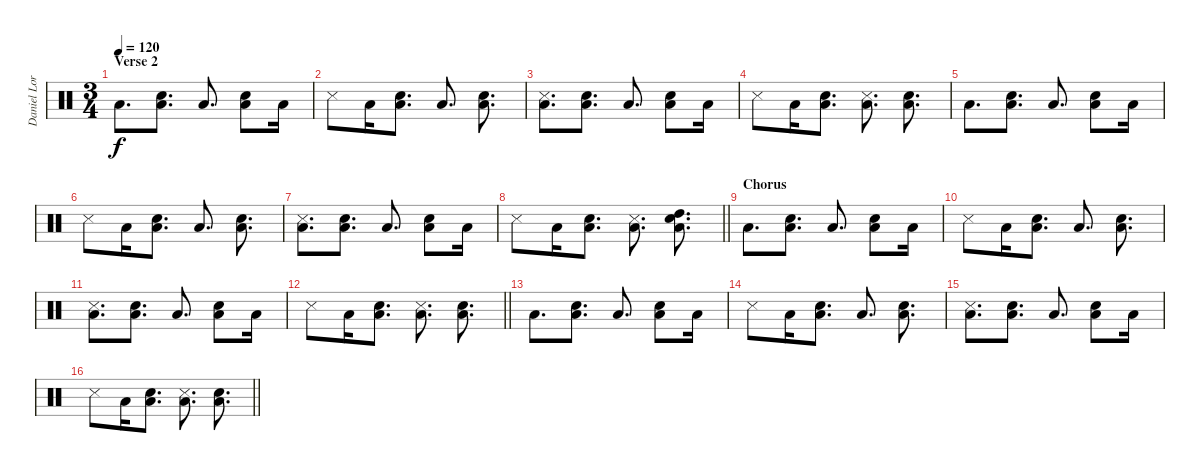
\track ("Daniel Lorca " "Daniel Lor") {instrument percussion}
\staff {score}
\articulation defaults
\ts (3 4)
\section ("" "Verse 2")
\tempo 120
\clef neutral
\ks c "Low Floor Tom (hit)".8{d dy f}
("Low Floor Tom (hit)" "Electric Snare (hit)").8{d} "Low Floor Tom (hit)".8{d} ("Low Floor Tom (hit)" "Electric Snare (hit)").8 "Low Floor Tom (hit)".16 |
"Snare (side stick) 3".8 "Low Floor Tom (hit)".16 ("Low Floor Tom (hit)" "Electric Snare (hit)").8{d} "Low Floor Tom (hit)".8{d} ("Low Floor Tom (hit)" "Electric Snare (hit)").8{d} |
("Low Floor Tom (hit)" "Metronome (hit)").8{d} ("Low Floor Tom (hit)" "Electric Snare (hit)").8{d} "Low Floor Tom (hit)".8{d} ("Low Floor Tom (hit)" "Electric Snare (hit)").8 "Low Floor Tom (hit)".16 |
"Snare (side stick) 3".8 "Low Floor Tom (hit)".16 ("Low Floor Tom (hit)" "Electric Snare (hit)").8{d} ("Low Floor Tom (hit)" "Metronome (hit)").8{d} ("Low Floor Tom (hit)" "Electric Snare (hit)").8{d} |
"Low Floor Tom (hit)".8{d} ("Low Floor Tom (hit)" "Electric Snare (hit)").8{d} "Low Floor Tom (hit)".8{d} ("Low Floor Tom (hit)" "Electric Snare (hit)").8 "Low Floor Tom (hit)".16 |
"Snare (side stick) 3".8 "Low Floor Tom (hit)".16 ("Low Floor Tom (hit)" "Electric Snare (hit)").8{d} "Low Floor Tom (hit)".8{d} ("Low Floor Tom (hit)" "Electric Snare (hit)").8{d} |
("Low Floor Tom (hit)" "Metronome (hit)").8{d} ("Low Floor Tom (hit)" "Electric Snare (hit)").8{d} "Low Floor Tom (hit)".8{d} ("Low Floor Tom (hit)" "Electric Snare (hit)").8 "Low Floor Tom (hit)".16 |
\barLineRight lightlight "Snare (side stick) 3".8 "Low Floor Tom (hit)".16
("Low Floor Tom (hit)" "Electric Snare (hit)").8{d} ("Low Floor Tom (hit)" "Metronome (hit)").8{d} ("Low Floor Tom (hit)" "Electric Snare (hit)" "High Tom (hit)").8{d} |
\section ("" "Chorus")
"Low Floor Tom (hit)".8{d} ("Low Floor Tom (hit)" "Electric Snare (hit)").8{d} "Low Floor Tom (hit)".8{d} ("Low Floor Tom (hit)" "Electric Snare (hit)").8 "Low Floor Tom (hit)".16 |
"Snare (side stick) 3".8 "Low Floor Tom (hit)".16 ("Low Floor Tom (hit)" "Electric Snare (hit)").8{d} "Low Floor Tom (hit)".8{d} ("Low Floor Tom (hit)" "Electric Snare (hit)").8{d} |
("Low Floor Tom (hit)" "Metronome (hit)").8{d} ("Low Floor Tom (hit)" "Electric Snare (hit)").8{d} "Low Floor Tom (hit)".8{d} ("Low Floor Tom (hit)" "Electric Snare (hit)").8 "Low Floor Tom (hit)".16 |
\barLineRight lightlight "Snare (side stick) 3".8 "Low Floor Tom (hit)".16
("Low Floor Tom (hit)" "Electric Snare (hit)").8{d} ("Low Floor Tom (hit)" "Metronome (hit)").8{d} ("Low Floor Tom (hit)" "Electric Snare (hit)").8{d} |
"Low Floor Tom (hit)".8{d} ("Low Floor Tom (hit)" "Electric Snare (hit)").8{d} "Low Floor Tom (hit)".8{d} ("Low Floor Tom (hit)" "Electric Snare (hit)").8 "Low Floor Tom (hit)".16 |
"Snare (side stick) 3".8 "Low Floor Tom (hit)".16 ("Low Floor Tom (hit)" "Electric Snare (hit)").8{d} "Low Floor Tom (hit)".8{d} ("Low Floor Tom (hit)" "Electric Snare (hit)").8{d} |
("Low Floor Tom (hit)" "Metronome (hit)").8{d} ("Low Floor Tom (hit)" "Electric Snare (hit)").8{d} "Low Floor Tom (hit)".8{d} ("Low Floor Tom (hit)" "Electric Snare (hit)").8 "Low Floor Tom (hit)".16 |
\barLineRight lightlight "Snare (side stick) 3".8 "Low Floor Tom (hit)".16
("Low Floor Tom (hit)" "Electric Snare (hit)").8{d} ("Low Floor Tom (hit)" "Metronome (hit)").8{d} ("Low Floor Tom (hit)" "Electric Snare (hit)").8{d}
